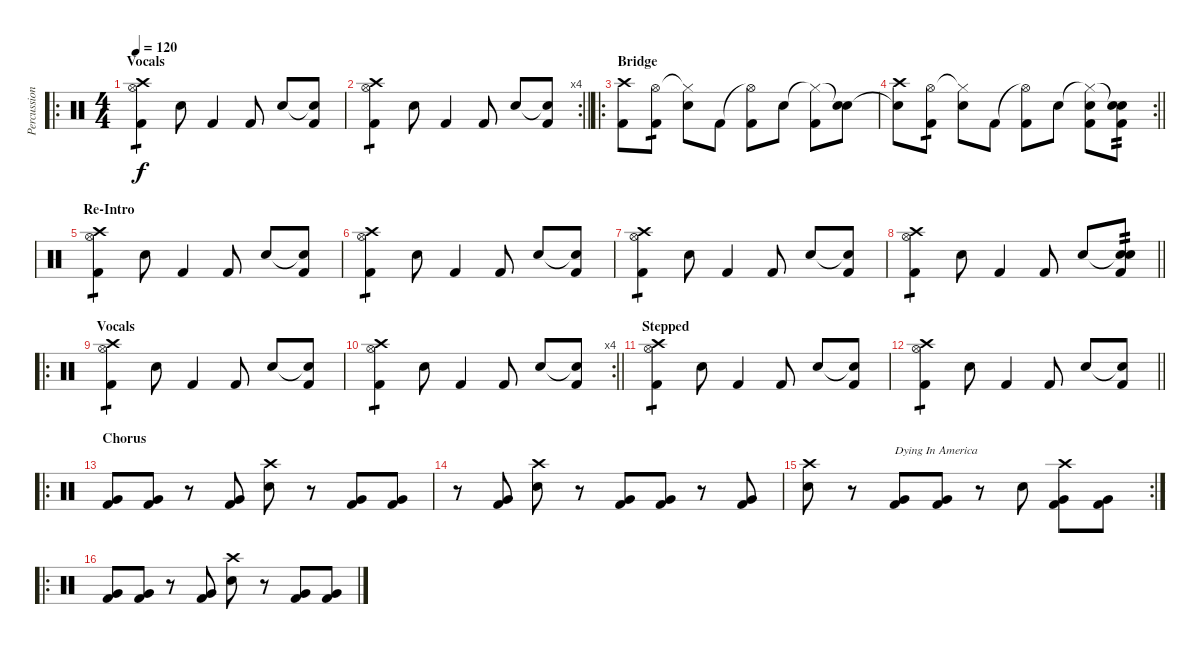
\track ("Percussion" "Percussion") {instrument percussion}
\staff {score}
\articulation defaults
\ro
\ts (4 4)
\section ("" "Vocals")
\tempo 120
\clef neutral
\ks c
("Hi-Hat (open)" "Crash high (hit)" "Kick (hit) 2").4{tp 1 dy f} "Electric Snare (hit)".8 "Kick (hit) 2".4 "Kick (hit) 2".8 "Electric Snare (hit)".8 ("Snare (hit)"{t} "Kick (hit) 2").8 |
\rc 4
\barLineRight lightlight
("Hi-Hat (open)" "Crash high (hit)" "Kick (hit) 2").4{tp 1} "Electric Snare (hit)".8 "Kick (hit) 2".4 "Kick (hit) 2".8 "Electric Snare (hit)".8 ("Snare (hit)"{t} "Kick (hit) 2").8 |
\ro
\section ("" "Bridge")
("Crash high (hit)" "Kick (hit) 2").8 ("Hi-Hat (open)" "Kick (hit) 2").8{tp 1} ("Hi-Hat (closed)"{t} "Electric Snare (hit)").8 "Kick (hit) 2".8 ("Hi-Hat (open)"{t} "Kick (hit) 2").8 "Electric Snare (hit)".8 ("Hi-Hat (closed)"{t} "Kick (hit) 2").8 ("Snare (hit)"{t} "Electric Snare (hit)").8 |
\rc 2
\barLineRight lightlight
("Crash high (hit)" "Snare (hit)"{t}).8 ("Hi-Hat (open)" "Kick (hit) 2").8{tp 1} ("Hi-Hat (closed)"{t} "Electric Snare (hit)").8 "Kick (hit) 2".8 ("Hi-Hat (open)"{t} "Kick (hit) 2").8 "Electric Snare (hit)".8 ("Hi-Hat (closed)"{t} "Electric Snare (hit)" "Kick (hit) 2").8 ("Snare (hit)"{t} "Electric Snare (hit)" "Kick (hit) 2").8{tp 2} |
\section ("" "Re-Intro")
("Hi-Hat (open)" "Crash high (hit)" "Kick (hit) 2").4{tp 1} "Electric Snare (hit)".8 "Kick (hit) 2".4 "Kick (hit) 2".8 "Electric Snare (hit)".8 ("Snare (hit)"{t} "Kick (hit) 2").8 |
("Hi-Hat (open)" "Crash high (hit)" "Kick (hit) 2").4{tp 1} "Electric Snare (hit)".8 "Kick (hit) 2".4 "Kick (hit) 2".8 "Electric Snare (hit)".8 ("Snare (hit)"{t} "Kick (hit) 2").8 |
("Hi-Hat (open)" "Crash high (hit)" "Kick (hit) 2").4{tp 1} "Electric Snare (hit)".8 "Kick (hit) 2".4 "Kick (hit) 2".8 "Electric Snare (hit)".8 ("Snare (hit)"{t} "Kick (hit) 2").8 |
\barLineRight lightlight
("Hi-Hat (open)" "Crash high (hit)" "Kick (hit) 2").4{tp 1} "Electric Snare (hit)".8 "Kick (hit) 2".4 "Kick (hit) 2".8 "Electric Snare (hit)".8 ("Snare (hit)"{t} "Electric Snare (hit)" "Kick (hit) 2").8{tp 2} |
\ro
\section ("" "Vocals")
("Hi-Hat (open)" "Crash high (hit)" "Kick (hit) 2").4{tp 1} "Electric Snare (hit)".8 "Kick (hit) 2".4 "Kick (hit) 2".8 "Electric Snare (hit)".8 ("Snare (hit)"{t} "Kick (hit) 2").8 |
\rc 4
\barLineRight lightlight
("Hi-Hat (open)" "Crash high (hit)" "Kick (hit) 2").4{tp 1} "Electric Snare (hit)".8 "Kick (hit) 2".4 "Kick (hit) 2".8 "Electric Snare (hit)".8 ("Snare (hit)"{t} "Kick (hit) 2").8 |
\section ("" "Stepped ")
("Hi-Hat (open)" "Crash high (hit)" "Kick (hit) 2").4{tp 1} "Electric Snare (hit)".8 "Kick (hit) 2".4 "Kick (hit) 2".8 "Electric Snare (hit)".8 ("Snare (hit)"{t} "Kick (hit) 2").8 |
\barLineRight lightlight
("Hi-Hat (open)" "Crash high (hit)" "Kick (hit) 2").4{tp 1} "Electric Snare (hit)".8 "Kick (hit) 2".4 "Kick (hit) 2".8 "Electric Snare (hit)".8 ("Snare (hit)"{t} "Kick (hit) 2").8 |
\ro
\section ("" "Chorus")
("Very Low Tom (hit)" "Kick (hit) 2").8 ("Very Low Tom (hit)" "Kick (hit) 2").8 r.8 ("Very Low Tom (hit)" "Kick (hit) 2").8 ("Crash high (hit)" "Electric Snare (hit)").8 r.8 ("Very Low Tom (hit)" "Kick (hit) 2").8 ("Very Low Tom (hit)" "Kick (hit) 2").8 |
r.8 ("Very Low Tom (hit)" "Kick (hit) 2").8 ("Crash high (hit)" "Electric Snare (hit)").8 r.8 ("Very Low Tom (hit)" "Kick (hit) 2").8 ("Very Low Tom (hit)" "Kick (hit) 2").8 r.8 ("Very Low Tom (hit)" "Kick (hit) 2").8 |
\rc 2
("Crash high (hit)" "Electric Snare (hit)").8 r.8 ("Very Low Tom (hit)" "Kick (hit) 2").8{txt "Dying In America"} ("Very Low Tom (hit)" "Kick (hit) 2").8 r.8 "Electric Snare (hit)".8 ("Crash high (hit)" "Very Low Tom (hit)" "Kick (hit) 2").8 ("Very Low Tom (hit)" "Kick (hit) 2").8 |
\ro
("Very Low Tom (hit)" "Kick (hit) 2").8 ("Very Low Tom (hit)" "Kick (hit) 2").8 r.8 ("Very Low Tom (hit)" "Kick (hit) 2").8 ("Crash high (hit)" "Electric Snare (hit)").8 r.8 ("Very Low Tom (hit)" "Kick (hit) 2").8 ("Very Low Tom (hit)" "Kick (hit) 2").8
